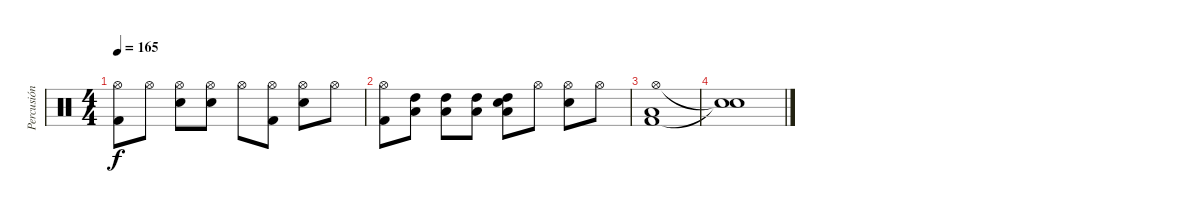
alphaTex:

\track ("Percusión" "Percusión") {instrument percussion}
\staff {score}
\articulation defaults
\ts (4 4)
\tempo 165
\clef neutral
\ks c
("Kick (hit) 2" "Hi-Hat (open)").8{dy f} "Hi-Hat (open)".8 ("Snare (hit) 2" "Hi-Hat (open)").8 ("Snare (hit) 2" "Hi-Hat (open)").8 "Hi-Hat (open)".8 ("Kick (hit) 2" "Hi-Hat (open)").8 ("Snare (hit) 2" "Hi-Hat (open)").8 "Hi-Hat (open)".8 |
("Kick (hit) 2" "Hi-Hat (open)").8 ("High Tom (hit)" "Low Floor Tom (hit)").8 ("High Tom (hit)" "Low Floor Tom (hit)").8 ("High Tom (hit)" "Low Floor Tom (hit)").8 ("Snare (hit) 2" "High Tom (hit)" "Low Floor Tom (hit)").8 "Hi-Hat (open)".8 ("Snare (hit) 2" "Hi-Hat (open)").8 "Hi-Hat (open)".8 |
("Kick (hit) 2" "Hi-Hat (open)" "Low Floor Tom (hit)").1 |
("Snare (hit)"{t} "Snare (hit)"{t}).1
